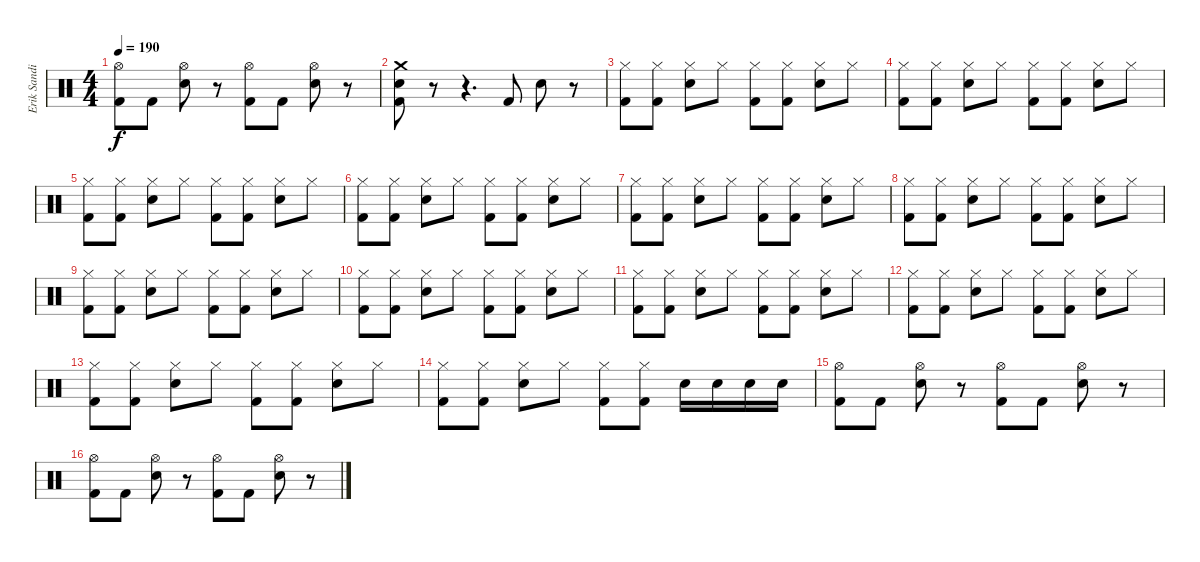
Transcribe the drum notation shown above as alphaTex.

\track ("Erik Sandin" "Erik Sandi") {instrument percussion}
\staff {score}
\articulation defaults
\ts (4 4)
\tempo 190
\clef neutral
\ks c
("Hi-Hat (open)" "Kick (hit) 2").8{dy f} "Kick (hit) 2".8 ("Hi-Hat (open)" "Snare (hit) 2").8 r.8 ("Hi-Hat (open)" "Kick (hit) 2").8 "Kick (hit) 2".8 ("Hi-Hat (open)" "Snare (hit) 2").8 r.8 |
("Crash medium (hit)" "Snare (hit) 2" "Kick (hit) 2").8 r.8 r.4{d} "Kick (hit) 2".8 "Snare (hit) 2".8 r.8 |
("Hi-Hat (closed)" "Kick (hit) 2").8 ("Hi-Hat (closed)" "Kick (hit) 2").8 ("Hi-Hat (closed)" "Snare (hit) 2").8 "Hi-Hat (closed)".8 ("Hi-Hat (closed)" "Kick (hit) 2").8 ("Hi-Hat (closed)" "Kick (hit) 2").8 ("Hi-Hat (closed)" "Snare (hit) 2").8 "Hi-Hat (closed)".8 |
("Hi-Hat (closed)" "Kick (hit) 2").8 ("Hi-Hat (closed)" "Kick (hit) 2").8 ("Hi-Hat (closed)" "Snare (hit) 2").8 "Hi-Hat (closed)".8 ("Hi-Hat (closed)" "Kick (hit) 2").8 ("Hi-Hat (closed)" "Kick (hit) 2").8 ("Hi-Hat (closed)" "Snare (hit) 2").8 "Hi-Hat (closed)".8 |
("Hi-Hat (closed)" "Kick (hit) 2").8 ("Hi-Hat (closed)" "Kick (hit) 2").8 ("Hi-Hat (closed)" "Snare (hit) 2").8 "Hi-Hat (closed)".8 ("Hi-Hat (closed)" "Kick (hit) 2").8 ("Hi-Hat (closed)" "Kick (hit) 2").8 ("Hi-Hat (closed)" "Snare (hit) 2").8 "Hi-Hat (closed)".8 |
("Hi-Hat (closed)" "Kick (hit) 2").8 ("Hi-Hat (closed)" "Kick (hit) 2").8 ("Hi-Hat (closed)" "Snare (hit) 2").8 "Hi-Hat (closed)".8 ("Hi-Hat (closed)" "Kick (hit) 2").8 ("Hi-Hat (closed)" "Kick (hit) 2").8 ("Hi-Hat (closed)" "Snare (hit) 2").8 "Hi-Hat (closed)".8 |
("Hi-Hat (closed)" "Kick (hit) 2").8 ("Hi-Hat (closed)" "Kick (hit) 2").8 ("Hi-Hat (closed)" "Snare (hit) 2").8 "Hi-Hat (closed)".8 ("Hi-Hat (closed)" "Kick (hit) 2").8 ("Hi-Hat (closed)" "Kick (hit) 2").8 ("Hi-Hat (closed)" "Snare (hit) 2").8 "Hi-Hat (closed)".8 |
("Hi-Hat (closed)" "Kick (hit) 2").8 ("Hi-Hat (closed)" "Kick (hit) 2").8 ("Hi-Hat (closed)" "Snare (hit) 2").8 "Hi-Hat (closed)".8 ("Hi-Hat (closed)" "Kick (hit) 2").8 ("Hi-Hat (closed)" "Kick (hit) 2").8 ("Hi-Hat (closed)" "Snare (hit) 2").8 "Hi-Hat (closed)".8 |
("Hi-Hat (closed)" "Kick (hit) 2").8 ("Hi-Hat (closed)" "Kick (hit) 2").8 ("Hi-Hat (closed)" "Snare (hit) 2").8 "Hi-Hat (closed)".8 ("Hi-Hat (closed)" "Kick (hit) 2").8 ("Hi-Hat (closed)" "Kick (hit) 2").8 ("Hi-Hat (closed)" "Snare (hit) 2").8 "Hi-Hat (closed)".8 |
("Hi-Hat (closed)" "Kick (hit) 2").8 ("Hi-Hat (closed)" "Kick (hit) 2").8 ("Hi-Hat (closed)" "Snare (hit) 2").8 "Hi-Hat (closed)".8 ("Hi-Hat (closed)" "Kick (hit) 2").8 ("Hi-Hat (closed)" "Kick (hit) 2").8 ("Hi-Hat (closed)" "Snare (hit) 2").8 "Hi-Hat (closed)".8 |
("Hi-Hat (closed)" "Kick (hit) 2").8 ("Hi-Hat (closed)" "Kick (hit) 2").8 ("Hi-Hat (closed)" "Snare (hit) 2").8 "Hi-Hat (closed)".8 ("Hi-Hat (closed)" "Kick (hit) 2").8 ("Hi-Hat (closed)" "Kick (hit) 2").8 ("Hi-Hat (closed)" "Snare (hit) 2").8 "Hi-Hat (closed)".8 |
("Hi-Hat (closed)" "Kick (hit) 2").8 ("Hi-Hat (closed)" "Kick (hit) 2").8 ("Hi-Hat (closed)" "Snare (hit) 2").8 "Hi-Hat (closed)".8 ("Hi-Hat (closed)" "Kick (hit) 2").8 ("Hi-Hat (closed)" "Kick (hit) 2").8 ("Hi-Hat (closed)" "Snare (hit) 2").8 "Hi-Hat (closed)".8 |
("Hi-Hat (closed)" "Kick (hit) 2").8 ("Hi-Hat (closed)" "Kick (hit) 2").8 ("Hi-Hat (closed)" "Snare (hit) 2").8 "Hi-Hat (closed)".8 ("Hi-Hat (closed)" "Kick (hit) 2").8 ("Hi-Hat (closed)" "Kick (hit) 2").8 ("Hi-Hat (closed)" "Snare (hit) 2").8 "Hi-Hat (closed)".8 |
("Hi-Hat (closed)" "Kick (hit) 2").8 ("Hi-Hat (closed)" "Kick (hit) 2").8 ("Hi-Hat (closed)" "Snare (hit) 2").8 "Hi-Hat (closed)".8 ("Hi-Hat (closed)" "Kick (hit) 2").8 ("Hi-Hat (closed)" "Kick (hit) 2").8 "Snare (hit) 2".16 "Snare (hit) 2".16 "Snare (hit) 2".16 "Snare (hit) 2".16 |
("Hi-Hat (open)" "Kick (hit) 2").8 "Kick (hit) 2".8 ("Hi-Hat (open)" "Snare (hit) 2").8 r.8 ("Hi-Hat (open)" "Kick (hit) 2").8 "Kick (hit) 2".8 ("Hi-Hat (open)" "Snare (hit) 2").8 r.8 |
("Hi-Hat (open)" "Kick (hit) 2").8 "Kick (hit) 2".8 ("Hi-Hat (open)" "Snare (hit) 2").8 r.8 ("Hi-Hat (open)" "Kick (hit) 2").8 "Kick (hit) 2".8 ("Hi-Hat (open)" "Snare (hit) 2").8 r.8
